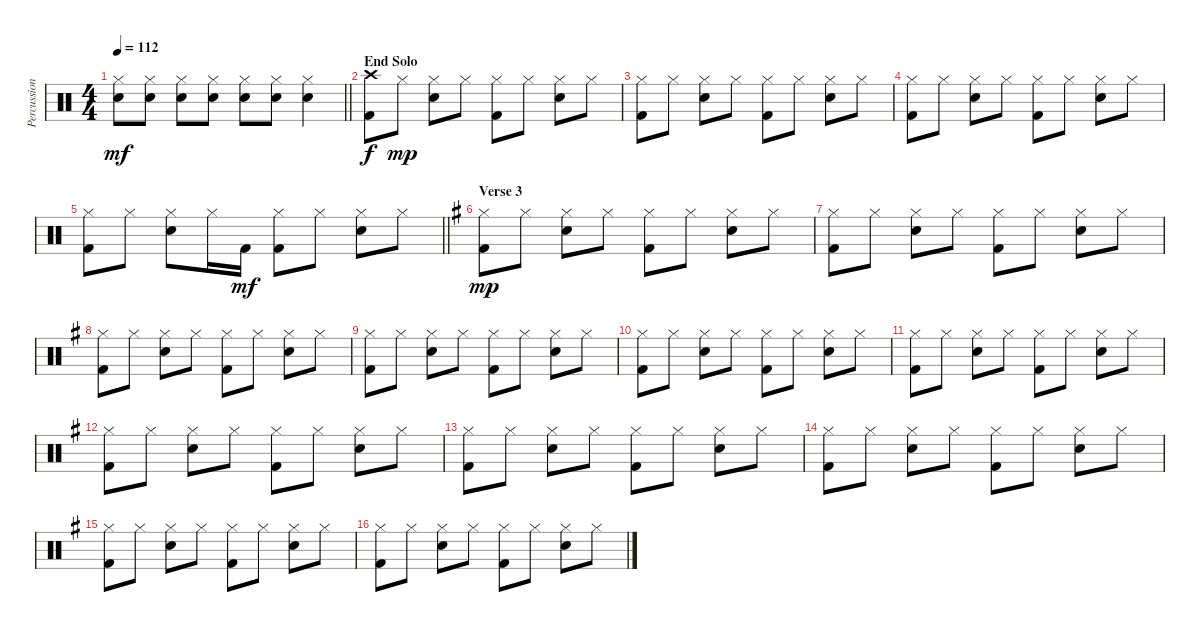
\track ("Percussion" "Percussion") {instrument percussion}
\staff {score}
\articulation defaults
\ts (4 4)
\tempo 112
\clef neutral
\barLineRight lightlight
\ks c
("Hi-Hat (closed)" "Snare (hit) 2").8{dy mf} ("Hi-Hat (closed)" "Snare (hit) 2").8 ("Hi-Hat (closed)" "Snare (hit) 2").8 ("Hi-Hat (closed)" "Snare (hit) 2").8 ("Hi-Hat (closed)" "Snare (hit) 2").8 ("Hi-Hat (closed)" "Snare (hit) 2").8 ("Hi-Hat (closed)" "Snare (hit) 2").4 |
\section ("" "End Solo")
("Crash high (hit)" "Kick (hit) 2").8{dy f} "Hi-Hat (closed)".8{dy mp} ("Hi-Hat (closed)" "Snare (hit) 2").8 "Hi-Hat (closed)".8 ("Hi-Hat (closed)" "Kick (hit) 2").8 "Hi-Hat (closed)".8 ("Hi-Hat (closed)" "Snare (hit) 2").8 "Hi-Hat (closed)".8 |
("Hi-Hat (closed)" "Kick (hit) 2").8 "Hi-Hat (closed)".8 ("Hi-Hat (closed)" "Snare (hit) 2").8 "Hi-Hat (closed)".8 ("Hi-Hat (closed)" "Kick (hit) 2").8 "Hi-Hat (closed)".8 ("Hi-Hat (closed)" "Snare (hit) 2").8 "Hi-Hat (closed)".8 |
("Hi-Hat (closed)" "Kick (hit) 2").8 "Hi-Hat (closed)".8 ("Hi-Hat (closed)" "Snare (hit) 2").8 "Hi-Hat (closed)".8 ("Hi-Hat (closed)" "Kick (hit) 2").8 "Hi-Hat (closed)".8 ("Hi-Hat (closed)" "Snare (hit) 2").8 "Hi-Hat (closed)".8 |
\barLineRight lightlight
("Hi-Hat (closed)" "Kick (hit) 2").8 "Hi-Hat (closed)".8 ("Hi-Hat (closed)" "Snare (hit) 2").8 "Hi-Hat (closed)".16 "Kick (hit) 2".16{dy mf} ("Hi-Hat (closed)" "Kick (hit) 2").8 "Hi-Hat (closed)".8 ("Hi-Hat (closed)" "Snare (hit) 2").8 "Hi-Hat (closed)".8 |
\section ("" "Verse 3")
\ks g
("Hi-Hat (closed)" "Kick (hit) 2").8{dy mp} "Hi-Hat (closed)".8 ("Hi-Hat (closed)" "Snare (hit) 2").8 "Hi-Hat (closed)".8 ("Hi-Hat (closed)" "Kick (hit) 2").8 "Hi-Hat (closed)".8 ("Hi-Hat (closed)" "Snare (hit) 2").8 "Hi-Hat (closed)".8 |
("Hi-Hat (closed)" "Kick (hit) 2").8 "Hi-Hat (closed)".8 ("Hi-Hat (closed)" "Snare (hit) 2").8 "Hi-Hat (closed)".8 ("Hi-Hat (closed)" "Kick (hit) 2").8 "Hi-Hat (closed)".8 ("Hi-Hat (closed)" "Snare (hit) 2").8 "Hi-Hat (closed)".8 |
("Hi-Hat (closed)" "Kick (hit) 2").8 "Hi-Hat (closed)".8 ("Hi-Hat (closed)" "Snare (hit) 2").8 "Hi-Hat (closed)".8 ("Hi-Hat (closed)" "Kick (hit) 2").8 "Hi-Hat (closed)".8 ("Hi-Hat (closed)" "Snare (hit) 2").8 "Hi-Hat (closed)".8 |
("Hi-Hat (closed)" "Kick (hit) 2").8 "Hi-Hat (closed)".8 ("Hi-Hat (closed)" "Snare (hit) 2").8 "Hi-Hat (closed)".8 ("Hi-Hat (closed)" "Kick (hit) 2").8 "Hi-Hat (closed)".8 ("Hi-Hat (closed)" "Snare (hit) 2").8 "Hi-Hat (closed)".8 |
("Hi-Hat (closed)" "Kick (hit) 2").8 "Hi-Hat (closed)".8 ("Hi-Hat (closed)" "Snare (hit) 2").8 "Hi-Hat (closed)".8 ("Hi-Hat (closed)" "Kick (hit) 2").8 "Hi-Hat (closed)".8 ("Hi-Hat (closed)" "Snare (hit) 2").8 "Hi-Hat (closed)".8 |
("Hi-Hat (closed)" "Kick (hit) 2").8 "Hi-Hat (closed)".8 ("Hi-Hat (closed)" "Snare (hit) 2").8 "Hi-Hat (closed)".8 ("Hi-Hat (closed)" "Kick (hit) 2").8 "Hi-Hat (closed)".8 ("Hi-Hat (closed)" "Snare (hit) 2").8 "Hi-Hat (closed)".8 |
("Hi-Hat (closed)" "Kick (hit) 2").8 "Hi-Hat (closed)".8 ("Hi-Hat (closed)" "Snare (hit) 2").8 "Hi-Hat (closed)".8 ("Hi-Hat (closed)" "Kick (hit) 2").8 "Hi-Hat (closed)".8 ("Hi-Hat (closed)" "Snare (hit) 2").8 "Hi-Hat (closed)".8 |
("Hi-Hat (closed)" "Kick (hit) 2").8 "Hi-Hat (closed)".8 ("Hi-Hat (closed)" "Snare (hit) 2").8 "Hi-Hat (closed)".8 ("Hi-Hat (closed)" "Kick (hit) 2").8 "Hi-Hat (closed)".8 ("Hi-Hat (closed)" "Snare (hit) 2").8 "Hi-Hat (closed)".8 |
("Hi-Hat (closed)" "Kick (hit) 2").8 "Hi-Hat (closed)".8 ("Hi-Hat (closed)" "Snare (hit) 2").8 "Hi-Hat (closed)".8 ("Hi-Hat (closed)" "Kick (hit) 2").8 "Hi-Hat (closed)".8 ("Hi-Hat (closed)" "Snare (hit) 2").8 "Hi-Hat (closed)".8 |
("Hi-Hat (closed)" "Kick (hit) 2").8 "Hi-Hat (closed)".8 ("Hi-Hat (closed)" "Snare (hit) 2").8 "Hi-Hat (closed)".8 ("Hi-Hat (closed)" "Kick (hit) 2").8 "Hi-Hat (closed)".8 ("Hi-Hat (closed)" "Snare (hit) 2").8 "Hi-Hat (closed)".8 |
("Hi-Hat (closed)" "Kick (hit) 2").8 "Hi-Hat (closed)".8 ("Hi-Hat (closed)" "Snare (hit) 2").8 "Hi-Hat (closed)".8 ("Hi-Hat (closed)" "Kick (hit) 2").8 "Hi-Hat (closed)".8 ("Hi-Hat (closed)" "Snare (hit) 2").8 "Hi-Hat (closed)".8
